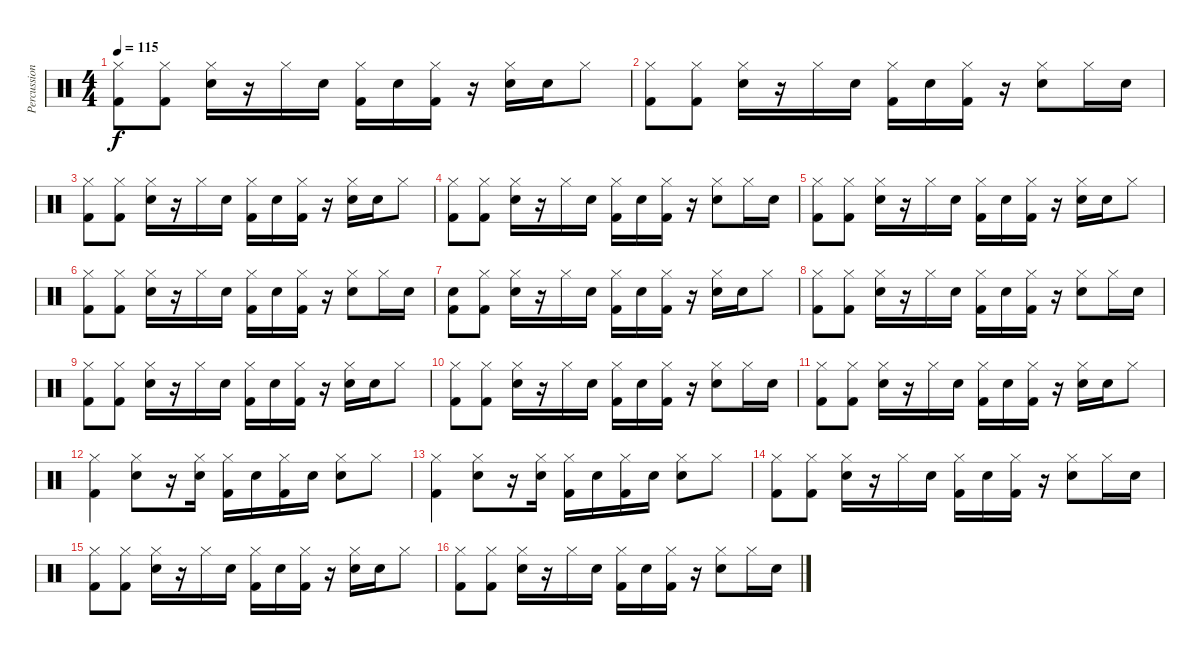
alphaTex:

\track ("Percussion" "Percussion") {instrument percussion}
\staff {score}
\articulation defaults
\ts (4 4)
\tempo 115
\clef neutral
\ks c
("Hi-Hat (closed)" "Kick (hit) 2").8{dy f} ("Hi-Hat (closed)" "Kick (hit) 2").8 ("Hi-Hat (closed)" "Snare (hit) 2").16 r.16 "Hi-Hat (closed)".16 "Snare (hit) 2".16 ("Hi-Hat (closed)" "Kick (hit) 2").16 "Snare (hit) 2".16 ("Hi-Hat (closed)" "Kick (hit) 2").16 r.16 ("Hi-Hat (closed)" "Snare (hit) 2").16 "Snare (hit) 2".16 "Hi-Hat (closed)".8 |
("Hi-Hat (closed)" "Kick (hit) 2").8 ("Hi-Hat (closed)" "Kick (hit) 2").8 ("Hi-Hat (closed)" "Snare (hit) 2").16 r.16 "Hi-Hat (closed)".16 "Snare (hit) 2".16 ("Hi-Hat (closed)" "Kick (hit) 2").16 "Snare (hit) 2".16 ("Hi-Hat (closed)" "Kick (hit) 2").16 r.16 ("Hi-Hat (closed)" "Snare (hit) 2").8 "Hi-Hat (closed)".16 "Snare (hit) 2".16 |
("Hi-Hat (closed)" "Kick (hit) 2").8 ("Hi-Hat (closed)" "Kick (hit) 2").8 ("Hi-Hat (closed)" "Snare (hit) 2").16 r.16 "Hi-Hat (closed)".16 "Snare (hit) 2".16 ("Hi-Hat (closed)" "Kick (hit) 2").16 "Snare (hit) 2".16 ("Hi-Hat (closed)" "Kick (hit) 2").16 r.16 ("Hi-Hat (closed)" "Snare (hit) 2").16 "Snare (hit) 2".16 "Hi-Hat (closed)".8 |
("Hi-Hat (closed)" "Kick (hit) 2").8 ("Hi-Hat (closed)" "Kick (hit) 2").8 ("Hi-Hat (closed)" "Snare (hit) 2").16 r.16 "Hi-Hat (closed)".16 "Snare (hit) 2".16 ("Hi-Hat (closed)" "Kick (hit) 2").16 "Snare (hit) 2".16 ("Hi-Hat (closed)" "Kick (hit) 2").16 r.16 ("Hi-Hat (closed)" "Snare (hit) 2").8 "Hi-Hat (closed)".16 "Snare (hit) 2".16 |
("Hi-Hat (closed)" "Kick (hit) 2").8 ("Hi-Hat (closed)" "Kick (hit) 2").8 ("Hi-Hat (closed)" "Snare (hit) 2").16 r.16 "Hi-Hat (closed)".16 "Snare (hit) 2".16 ("Hi-Hat (closed)" "Kick (hit) 2").16 "Snare (hit) 2".16 ("Hi-Hat (closed)" "Kick (hit) 2").16 r.16 ("Hi-Hat (closed)" "Snare (hit) 2").16 "Snare (hit) 2".16 "Hi-Hat (closed)".8 |
("Hi-Hat (closed)" "Kick (hit) 2").8 ("Hi-Hat (closed)" "Kick (hit) 2").8 ("Hi-Hat (closed)" "Snare (hit) 2").16 r.16 "Hi-Hat (closed)".16 "Snare (hit) 2".16 ("Hi-Hat (closed)" "Kick (hit) 2").16 "Snare (hit) 2".16 ("Hi-Hat (closed)" "Kick (hit) 2").16 r.16 ("Hi-Hat (closed)" "Snare (hit) 2").8 "Hi-Hat (closed)".16 "Snare (hit) 2".16 |
("Snare (hit)" "Kick (hit) 2").8 ("Hi-Hat (closed)" "Kick (hit) 2").8 ("Hi-Hat (closed)" "Snare (hit) 2").16 r.16 "Hi-Hat (closed)".16 "Snare (hit) 2".16 ("Hi-Hat (closed)" "Kick (hit) 2").16 "Snare (hit) 2".16 ("Hi-Hat (closed)" "Kick (hit) 2").16 r.16 ("Hi-Hat (closed)" "Snare (hit) 2").16 "Snare (hit) 2".16 "Hi-Hat (closed)".8 |
("Hi-Hat (closed)" "Kick (hit) 2").8 ("Hi-Hat (closed)" "Kick (hit) 2").8 ("Hi-Hat (closed)" "Snare (hit) 2").16 r.16 "Hi-Hat (closed)".16 "Snare (hit) 2".16 ("Hi-Hat (closed)" "Kick (hit) 2").16 "Snare (hit) 2".16 ("Hi-Hat (closed)" "Kick (hit) 2").16 r.16 ("Hi-Hat (closed)" "Snare (hit) 2").8 "Hi-Hat (closed)".16 "Snare (hit) 2".16 |
("Hi-Hat (closed)" "Kick (hit) 2").8 ("Hi-Hat (closed)" "Kick (hit) 2").8 ("Hi-Hat (closed)" "Snare (hit) 2").16 r.16 "Hi-Hat (closed)".16 "Snare (hit) 2".16 ("Hi-Hat (closed)" "Kick (hit) 2").16 "Snare (hit) 2".16 ("Hi-Hat (closed)" "Kick (hit) 2").16 r.16 ("Hi-Hat (closed)" "Snare (hit) 2").16 "Snare (hit) 2".16 "Hi-Hat (closed)".8 |
("Hi-Hat (closed)" "Kick (hit) 2").8 ("Hi-Hat (closed)" "Kick (hit) 2").8 ("Hi-Hat (closed)" "Snare (hit) 2").16 r.16 "Hi-Hat (closed)".16 "Snare (hit) 2".16 ("Hi-Hat (closed)" "Kick (hit) 2").16 "Snare (hit) 2".16 ("Hi-Hat (closed)" "Kick (hit) 2").16 r.16 ("Hi-Hat (closed)" "Snare (hit) 2").8 "Hi-Hat (closed)".16 "Snare (hit) 2".16 |
("Hi-Hat (closed)" "Kick (hit) 2").8 ("Hi-Hat (closed)" "Kick (hit) 2").8 ("Hi-Hat (closed)" "Snare (hit) 2").16 r.16 "Hi-Hat (closed)".16 "Snare (hit) 2".16 ("Hi-Hat (closed)" "Kick (hit) 2").16 "Snare (hit) 2".16 ("Hi-Hat (closed)" "Kick (hit) 2").16 r.16 ("Hi-Hat (closed)" "Snare (hit) 2").16 "Snare (hit) 2".16 "Hi-Hat (closed)".8 |
("Hi-Hat (closed)" "Kick (hit) 2").4 ("Hi-Hat (closed)" "Snare (hit) 2").8 r.16 ("Hi-Hat (closed)" "Snare (hit) 2").16 ("Hi-Hat (closed)" "Kick (hit) 2").16 "Snare (hit) 2".16 ("Hi-Hat (closed)" "Kick (hit) 2").16 "Snare (hit)".16 ("Hi-Hat (closed)" "Snare (hit) 2").8 "Hi-Hat (closed)".8 |
("Hi-Hat (closed)" "Kick (hit) 2").4 ("Hi-Hat (closed)" "Snare (hit) 2").8 r.16 ("Hi-Hat (closed)" "Snare (hit) 2").16 ("Hi-Hat (closed)" "Kick (hit) 2").16 "Snare (hit) 2".16 ("Hi-Hat (closed)" "Kick (hit) 2").16 "Snare (hit)".16 ("Hi-Hat (closed)" "Snare (hit) 2").8 "Hi-Hat (closed)".8 |
("Hi-Hat (closed)" "Kick (hit) 2").8 ("Hi-Hat (closed)" "Kick (hit) 2").8 ("Hi-Hat (closed)" "Snare (hit) 2").16 r.16 "Hi-Hat (closed)".16 "Snare (hit) 2".16 ("Hi-Hat (closed)" "Kick (hit) 2").16 "Snare (hit) 2".16 ("Hi-Hat (closed)" "Kick (hit) 2").16 r.16 ("Hi-Hat (closed)" "Snare (hit) 2").8 "Hi-Hat (closed)".16 "Snare (hit) 2".16 |
("Hi-Hat (closed)" "Kick (hit) 2").8 ("Hi-Hat (closed)" "Kick (hit) 2").8 ("Hi-Hat (closed)" "Snare (hit) 2").16 r.16 "Hi-Hat (closed)".16 "Snare (hit) 2".16 ("Hi-Hat (closed)" "Kick (hit) 2").16 "Snare (hit) 2".16 ("Hi-Hat (closed)" "Kick (hit) 2").16 r.16 ("Hi-Hat (closed)" "Snare (hit) 2").16 "Snare (hit) 2".16 "Hi-Hat (closed)".8 |
("Hi-Hat (closed)" "Kick (hit) 2").8 ("Hi-Hat (closed)" "Kick (hit) 2").8 ("Hi-Hat (closed)" "Snare (hit) 2").16 r.16 "Hi-Hat (closed)".16 "Snare (hit) 2".16 ("Hi-Hat (closed)" "Kick (hit) 2").16 "Snare (hit) 2".16 ("Hi-Hat (closed)" "Kick (hit) 2").16 r.16 ("Hi-Hat (closed)" "Snare (hit) 2").8 "Hi-Hat (closed)".16 "Snare (hit) 2".16
